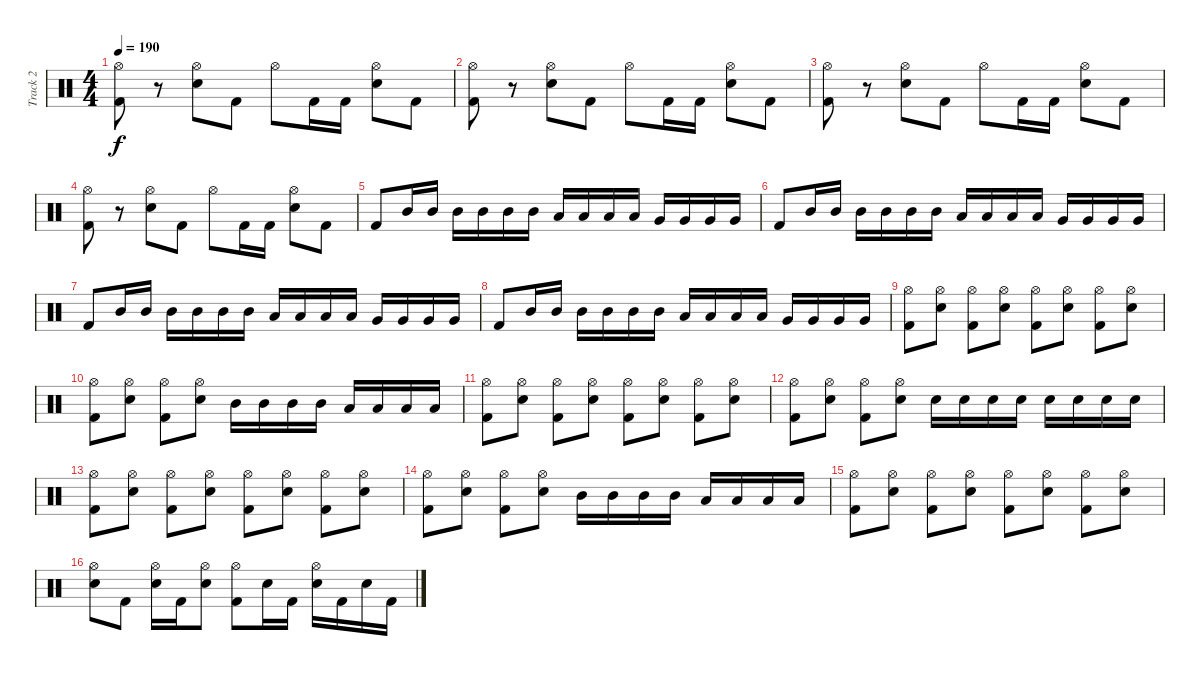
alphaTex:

\track ("Track 2" "Track 2") {instrument percussion}
\staff {score}
\articulation defaults
\ts (4 4)
\tempo 190
\clef neutral
\ks c
("Hi-Hat (open)" "Kick (hit) 2").8{dy f} r.8 ("Hi-Hat (open)" "Snare (hit) 2").8 "Kick (hit) 2".8 "Hi-Hat (open)".8 "Kick (hit) 2".16 "Kick (hit) 2".16 ("Hi-Hat (open)" "Snare (hit) 2").8 "Kick (hit) 2".8 |
("Hi-Hat (open)" "Kick (hit) 2").8 r.8 ("Hi-Hat (open)" "Snare (hit) 2").8 "Kick (hit) 2".8 "Hi-Hat (open)".8 "Kick (hit) 2".16 "Kick (hit) 2".16 ("Hi-Hat (open)" "Snare (hit) 2").8 "Kick (hit) 2".8 |
("Hi-Hat (open)" "Kick (hit) 2").8 r.8 ("Hi-Hat (open)" "Snare (hit) 2").8 "Kick (hit) 2".8 "Hi-Hat (open)".8 "Kick (hit) 2".16 "Kick (hit) 2".16 ("Hi-Hat (open)" "Snare (hit) 2").8 "Kick (hit) 2".8 |
("Hi-Hat (open)" "Kick (hit) 2").8 r.8 ("Hi-Hat (open)" "Snare (hit) 2").8 "Kick (hit) 2".8 "Hi-Hat (open)".8 "Kick (hit) 2".16 "Kick (hit) 2".16 ("Hi-Hat (open)" "Snare (hit) 2").8 "Kick (hit) 2".8 |
"Kick (hit) 2".8 "Mid Tom (hit)".16 "Mid Tom (hit)".16 "Mid Tom (hit)".16 "Mid Tom (hit)".16 "Mid Tom (hit)".16 "Mid Tom (hit)".16 "Low Tom (hit)".16 "Low Tom (hit)".16 "Low Tom (hit)".16 "Low Tom (hit)".16 "Very Low Tom (hit)".16 "Very Low Tom (hit)".16 "Very Low Tom (hit)".16 "Very Low Tom (hit)".16 |
"Kick (hit) 2".8 "Mid Tom (hit)".16 "Mid Tom (hit)".16 "Mid Tom (hit)".16 "Mid Tom (hit)".16 "Mid Tom (hit)".16 "Mid Tom (hit)".16 "Low Tom (hit)".16 "Low Tom (hit)".16 "Low Tom (hit)".16 "Low Tom (hit)".16 "Very Low Tom (hit)".16 "Very Low Tom (hit)".16 "Very Low Tom (hit)".16 "Very Low Tom (hit)".16 |
"Kick (hit) 2".8 "Mid Tom (hit)".16 "Mid Tom (hit)".16 "Mid Tom (hit)".16 "Mid Tom (hit)".16 "Mid Tom (hit)".16 "Mid Tom (hit)".16 "Low Tom (hit)".16 "Low Tom (hit)".16 "Low Tom (hit)".16 "Low Tom (hit)".16 "Very Low Tom (hit)".16 "Very Low Tom (hit)".16 "Very Low Tom (hit)".16 "Very Low Tom (hit)".16 |
"Kick (hit) 2".8 "Mid Tom (hit)".16 "Mid Tom (hit)".16 "Mid Tom (hit)".16 "Mid Tom (hit)".16 "Mid Tom (hit)".16 "Mid Tom (hit)".16 "Low Tom (hit)".16 "Low Tom (hit)".16 "Low Tom (hit)".16 "Low Tom (hit)".16 "Very Low Tom (hit)".16 "Very Low Tom (hit)".16 "Very Low Tom (hit)".16 "Very Low Tom (hit)".16 |
("Hi-Hat (open)" "Kick (hit) 2").8 ("Hi-Hat (open)" "Snare (hit) 2").8 ("Hi-Hat (open)" "Kick (hit) 2").8 ("Hi-Hat (open)" "Snare (hit) 2").8 ("Hi-Hat (open)" "Kick (hit) 2").8 ("Hi-Hat (open)" "Snare (hit) 2").8 ("Hi-Hat (open)" "Kick (hit) 2").8 ("Hi-Hat (open)" "Snare (hit) 2").8 |
("Hi-Hat (open)" "Kick (hit) 2").8 ("Hi-Hat (open)" "Snare (hit) 2").8 ("Hi-Hat (open)" "Kick (hit) 2").8 ("Hi-Hat (open)" "Snare (hit) 2").8 "Mid Tom (hit)".16 "Mid Tom (hit)".16 "Mid Tom (hit)".16 "Mid Tom (hit)".16 "Low Tom (hit)".16 "Low Tom (hit)".16 "Low Tom (hit)".16 "Low Tom (hit)".16 |
("Hi-Hat (open)" "Kick (hit) 2").8 ("Hi-Hat (open)" "Snare (hit) 2").8 ("Hi-Hat (open)" "Kick (hit) 2").8 ("Hi-Hat (open)" "Snare (hit) 2").8 ("Hi-Hat (open)" "Kick (hit) 2").8 ("Hi-Hat (open)" "Snare (hit) 2").8 ("Hi-Hat (open)" "Kick (hit) 2").8 ("Hi-Hat (open)" "Snare (hit) 2").8 |
("Hi-Hat (open)" "Kick (hit) 2").8 ("Hi-Hat (open)" "Snare (hit) 2").8 ("Hi-Hat (open)" "Kick (hit) 2").8 ("Hi-Hat (open)" "Snare (hit) 2").8 "Snare (hit) 2".16 "Snare (hit) 2".16 "Snare (hit) 2".16 "Snare (hit) 2".16 "Snare (hit) 2".16 "Snare (hit) 2".16 "Snare (hit) 2".16 "Snare (hit) 2".16 |
("Hi-Hat (open)" "Kick (hit) 2").8 ("Hi-Hat (open)" "Snare (hit) 2").8 ("Hi-Hat (open)" "Kick (hit) 2").8 ("Hi-Hat (open)" "Snare (hit) 2").8 ("Hi-Hat (open)" "Kick (hit) 2").8 ("Hi-Hat (open)" "Snare (hit) 2").8 ("Hi-Hat (open)" "Kick (hit) 2").8 ("Hi-Hat (open)" "Snare (hit) 2").8 |
("Hi-Hat (open)" "Kick (hit) 2").8 ("Hi-Hat (open)" "Snare (hit) 2").8 ("Hi-Hat (open)" "Kick (hit) 2").8 ("Hi-Hat (open)" "Snare (hit) 2").8 "Mid Tom (hit)".16 "Mid Tom (hit)".16 "Mid Tom (hit)".16 "Mid Tom (hit)".16 "Low Tom (hit)".16 "Low Tom (hit)".16 "Low Tom (hit)".16 "Low Tom (hit)".16 |
("Hi-Hat (open)" "Kick (hit) 2").8 ("Hi-Hat (open)" "Snare (hit) 2").8 ("Hi-Hat (open)" "Kick (hit) 2").8 ("Hi-Hat (open)" "Snare (hit) 2").8 ("Hi-Hat (open)" "Kick (hit) 2").8 ("Hi-Hat (open)" "Snare (hit) 2").8 ("Hi-Hat (open)" "Kick (hit) 2").8 ("Hi-Hat (open)" "Snare (hit) 2").8 |
("Hi-Hat (open)" "Snare (hit) 2").8 "Kick (hit) 2".8 ("Hi-Hat (open)" "Snare (hit) 2").16 "Kick (hit) 2".16 ("Hi-Hat (open)" "Snare (hit) 2").8 ("Hi-Hat (open)" "Kick (hit) 2").8 "Snare (hit) 2".16 "Kick (hit) 2".16 ("Hi-Hat (open)" "Snare (hit) 2").16 "Kick (hit) 2".16 "Snare (hit) 2".16 "Kick (hit) 2".16
